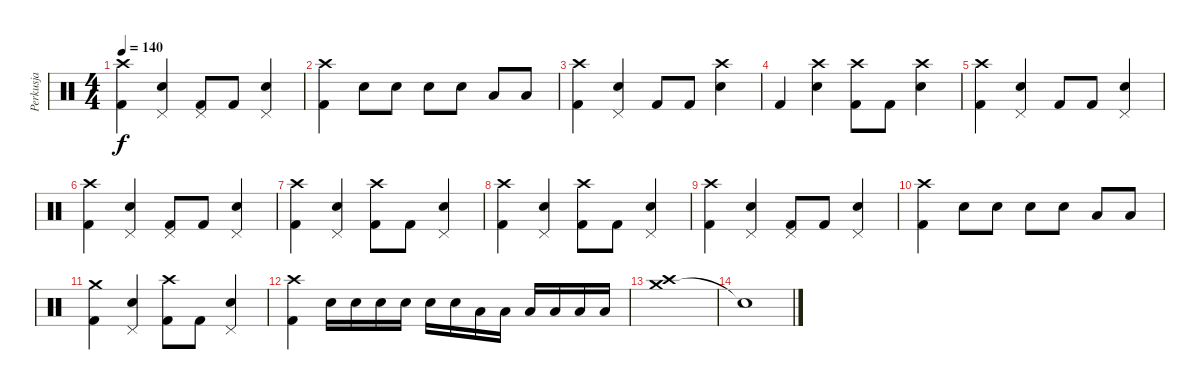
\track ("Perkusja" "Perkusja") {instrument percussion}
\staff {score}
\articulation defaults
\ts (4 4)
\tempo 140
\clef neutral
\ks c
("Crash high (hit)" "Kick (hit) 2").4{dy f} ("Pedal Hi-Hat (hit)" "Snare (hit) 2").4 ("Pedal Hi-Hat (hit)" "Kick (hit) 2").8 "Kick (hit) 2".8 ("Pedal Hi-Hat (hit)" "Snare (hit) 2").4 |
("Crash high (hit)" "Kick (hit) 2").4 "Snare (hit) 2".8 "Snare (hit) 2".8 "Snare (hit) 2".8 "Snare (hit) 2".8 "Low Tom (hit)".8 "Low Tom (hit)".8 |
("Crash high (hit)" "Kick (hit) 2").4 ("Pedal Hi-Hat (hit)" "Snare (hit) 2").4 "Kick (hit) 2".8 "Kick (hit) 2".8 ("Crash high (hit)" "Snare (hit) 2").4 |
"Kick (hit) 2".4 ("Crash high (hit)" "Snare (hit) 2").4 ("Crash high (hit)" "Kick (hit) 2").8 "Kick (hit) 2".8 ("Crash high (hit)" "Snare (hit) 2").4 |
("Crash high (hit)" "Kick (hit) 2").4 ("Pedal Hi-Hat (hit)" "Snare (hit) 2").4 "Kick (hit) 2".8 "Kick (hit) 2".8 ("Pedal Hi-Hat (hit)" "Snare (hit) 2").4 |
("Crash high (hit)" "Kick (hit) 2").4 ("Pedal Hi-Hat (hit)" "Snare (hit) 2").4 ("Pedal Hi-Hat (hit)" "Kick (hit) 2").8 "Kick (hit) 2".8 ("Pedal Hi-Hat (hit)" "Snare (hit) 2").4 |
("Crash high (hit)" "Kick (hit) 2").4 ("Pedal Hi-Hat (hit)" "Snare (hit) 2").4 ("Crash high (hit)" "Kick (hit) 2").8 "Kick (hit) 2".8 ("Pedal Hi-Hat (hit)" "Snare (hit) 2").4 |
("Crash high (hit)" "Kick (hit) 2").4 ("Pedal Hi-Hat (hit)" "Snare (hit) 2").4 ("Crash high (hit)" "Kick (hit) 2").8 "Kick (hit) 2".8 ("Pedal Hi-Hat (hit)" "Snare (hit) 2").4 |
("Crash high (hit)" "Kick (hit) 2").4 ("Pedal Hi-Hat (hit)" "Snare (hit) 2").4 ("Pedal Hi-Hat (hit)" "Kick (hit) 2").8 "Kick (hit) 2".8 ("Pedal Hi-Hat (hit)" "Snare (hit) 2").4 |
("Crash high (hit)" "Kick (hit) 2").4 "Snare (hit) 2".8 "Snare (hit) 2".8 "Snare (hit) 2".8 "Snare (hit) 2".8 "Low Tom (hit)".8 "Low Tom (hit)".8 |
("Crash medium (hit)" "Kick (hit) 2").4 ("Pedal Hi-Hat (hit)" "Snare (hit) 2").4 ("Crash high (hit)" "Kick (hit) 2").8 "Kick (hit) 2".8 ("Pedal Hi-Hat (hit)" "Snare (hit) 2").4 |
("Crash high (hit)" "Kick (hit) 2").4 "Snare (hit) 2".16 "Snare (hit) 2".16 "Snare (hit) 2".16 "Snare (hit) 2".16 "Snare (hit) 2".16 "Snare (hit) 2".16 "Low Tom (hit)".16 "Low Tom (hit)".16 "Low Tom (hit)".16 "Low Tom (hit)".16 "Low Tom (hit)".16 "Low Tom (hit)".16 |
("Crash medium (hit)" "Crash high (hit)").1 |
"Snare (hit)"{t}.1
